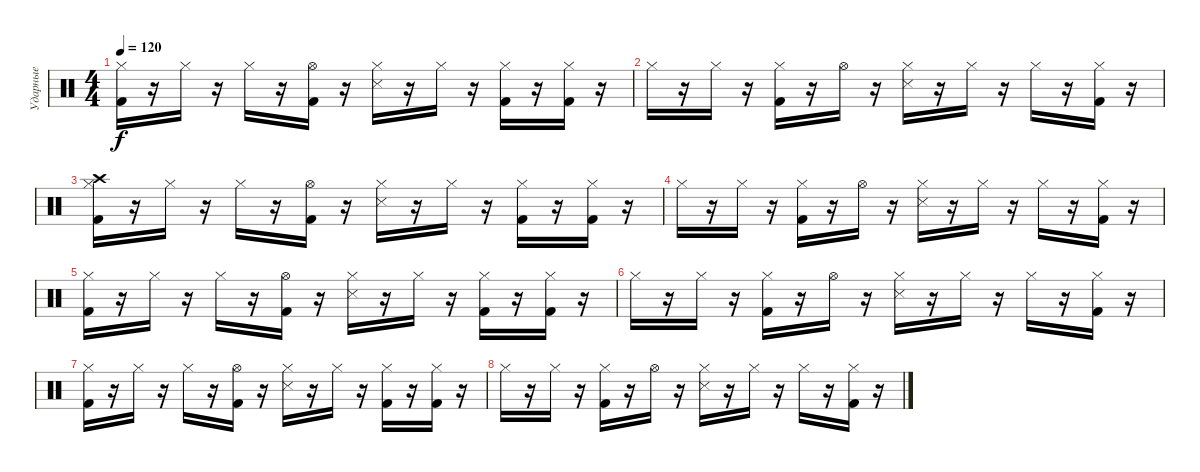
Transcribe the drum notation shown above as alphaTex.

\track ("Ударные" "Ударные") {instrument percussion}
\staff {score}
\articulation defaults
\ts (4 4)
\tempo 120
\clef neutral
\ks c
("Hi-Hat (closed)" "Kick (hit) 2").16{dy f} r.16 "Hi-Hat (closed)".16 r.16 "Hi-Hat (closed)".16 r.16 ("Hi-Hat (open)" "Kick (hit) 2").16 r.16 ("Hi-Hat (closed)" "Snare (side stick) 3").16 r.16 "Hi-Hat (closed)".16 r.16 ("Hi-Hat (closed)" "Kick (hit) 2").16 r.16 ("Hi-Hat (closed)" "Kick (hit) 2").16 r.16 |
"Hi-Hat (closed)".16 r.16 "Hi-Hat (closed)".16 r.16 ("Hi-Hat (closed)" "Kick (hit) 2").16 r.16 "Hi-Hat (open)".16 r.16 ("Hi-Hat (closed)" "Metronome (hit)").16 r.16 "Hi-Hat (closed)".16 r.16 "Hi-Hat (closed)".16 r.16 ("Hi-Hat (closed)" "Kick (hit) 2").16 r.16 |
("Crash high (hit)" "Hi-Hat (closed)" "Kick (hit) 2").16 r.16 "Hi-Hat (closed)".16 r.16 "Hi-Hat (closed)".16 r.16 ("Hi-Hat (open)" "Kick (hit) 2").16 r.16 ("Hi-Hat (closed)" "Snare (side stick) 3").16 r.16 "Hi-Hat (closed)".16 r.16 ("Hi-Hat (closed)" "Kick (hit) 2").16 r.16 ("Hi-Hat (closed)" "Kick (hit) 2").16 r.16 |
"Hi-Hat (closed)".16 r.16 "Hi-Hat (closed)".16 r.16 ("Hi-Hat (closed)" "Kick (hit) 2").16 r.16 "Hi-Hat (open)".16 r.16 ("Hi-Hat (closed)" "Metronome (hit)").16 r.16 "Hi-Hat (closed)".16 r.16 "Hi-Hat (closed)".16 r.16 ("Hi-Hat (closed)" "Kick (hit) 2").16 r.16 |
("Hi-Hat (closed)" "Kick (hit) 2").16 r.16 "Hi-Hat (closed)".16 r.16 "Hi-Hat (closed)".16 r.16 ("Hi-Hat (open)" "Kick (hit) 2").16 r.16 ("Hi-Hat (closed)" "Snare (side stick) 3").16 r.16 "Hi-Hat (closed)".16 r.16 ("Hi-Hat (closed)" "Kick (hit) 2").16 r.16 ("Hi-Hat (closed)" "Kick (hit) 2").16 r.16 |
"Hi-Hat (closed)".16 r.16 "Hi-Hat (closed)".16 r.16 ("Hi-Hat (closed)" "Kick (hit) 2").16 r.16 "Hi-Hat (open)".16 r.16 ("Hi-Hat (closed)" "Metronome (hit)").16 r.16 "Hi-Hat (closed)".16 r.16 "Hi-Hat (closed)".16 r.16 ("Hi-Hat (closed)" "Kick (hit) 2").16 r.16 |
("Hi-Hat (closed)" "Kick (hit) 2").16 r.16 "Hi-Hat (closed)".16 r.16 "Hi-Hat (closed)".16 r.16 ("Hi-Hat (open)" "Kick (hit) 2").16 r.16 ("Hi-Hat (closed)" "Snare (side stick) 3").16 r.16 "Hi-Hat (closed)".16 r.16 ("Hi-Hat (closed)" "Kick (hit) 2").16 r.16 ("Hi-Hat (closed)" "Kick (hit) 2").16 r.16 |
"Hi-Hat (closed)".16 r.16 "Hi-Hat (closed)".16 r.16 ("Hi-Hat (closed)" "Kick (hit) 2").16 r.16 "Hi-Hat (open)".16 r.16 ("Hi-Hat (closed)" "Metronome (hit)").16 r.16 "Hi-Hat (closed)".16 r.16 "Hi-Hat (closed)".16 r.16 ("Hi-Hat (closed)" "Kick (hit) 2").16 r.16
